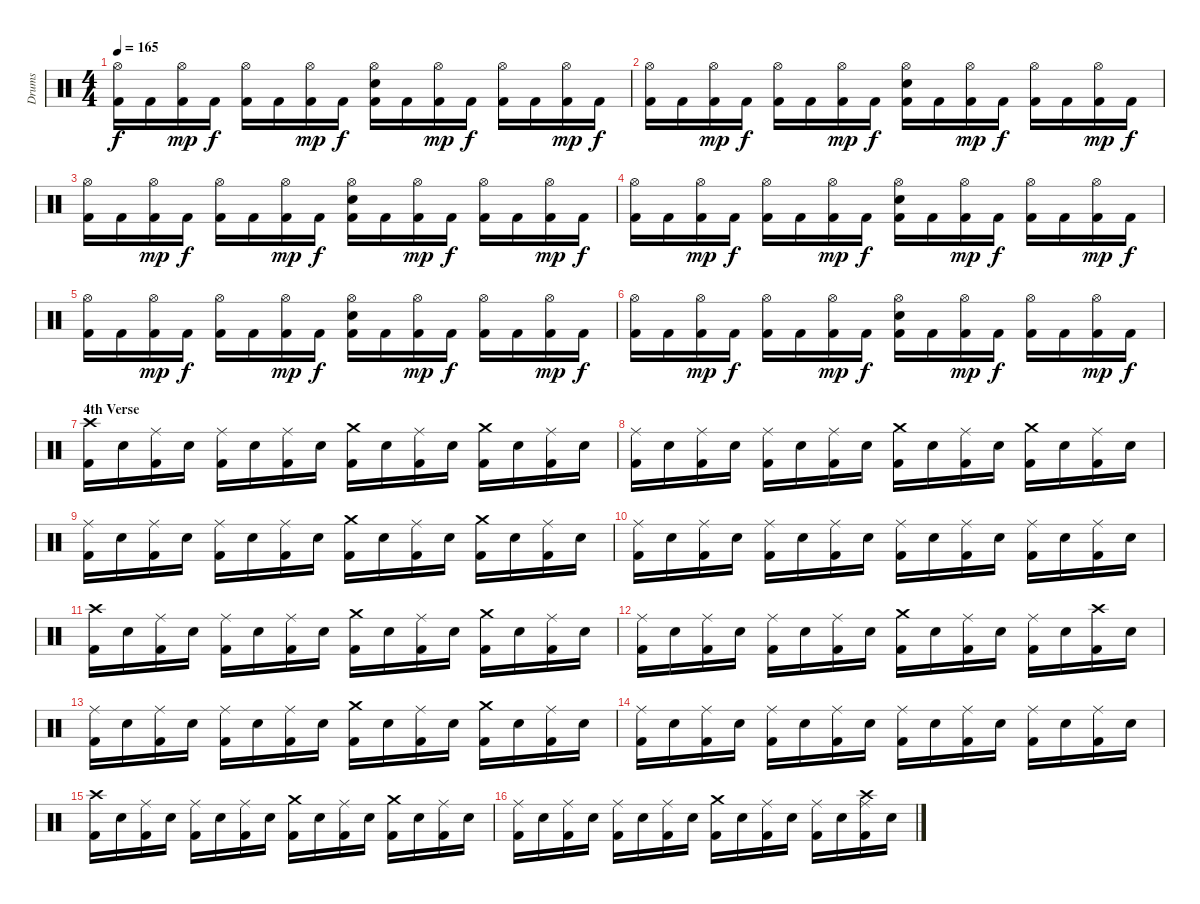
\track ("Drums" "Drums") {instrument percussion}
\staff {score}
\articulation defaults
\ts (4 4)
\tempo 165
\clef neutral
\ks c
("Kick (hit) 2" "Hi-Hat (open)").16{dy f} "Kick (hit) 2".16 ("Kick (hit) 2" "Hi-Hat (open)").16{dy mp} "Kick (hit) 2".16{dy f} ("Kick (hit) 2" "Hi-Hat (open)").16 "Kick (hit) 2".16 ("Kick (hit) 2" "Hi-Hat (open)").16{dy mp} "Kick (hit) 2".16{dy f} ("Kick (hit) 2" "Electric Snare (hit)" "Hi-Hat (open)").16 "Kick (hit) 2".16 ("Kick (hit) 2" "Hi-Hat (open)").16{dy mp} "Kick (hit) 2".16{dy f} ("Kick (hit) 2" "Hi-Hat (open)").16 "Kick (hit) 2".16 ("Kick (hit) 2" "Hi-Hat (open)").16{dy mp} "Kick (hit) 2".16{dy f} |
("Kick (hit) 2" "Hi-Hat (open)").16 "Kick (hit) 2".16 ("Kick (hit) 2" "Hi-Hat (open)").16{dy mp} "Kick (hit) 2".16{dy f} ("Kick (hit) 2" "Hi-Hat (open)").16 "Kick (hit) 2".16 ("Kick (hit) 2" "Hi-Hat (open)").16{dy mp} "Kick (hit) 2".16{dy f} ("Kick (hit) 2" "Electric Snare (hit)" "Hi-Hat (open)").16 "Kick (hit) 2".16 ("Kick (hit) 2" "Hi-Hat (open)").16{dy mp} "Kick (hit) 2".16{dy f} ("Kick (hit) 2" "Hi-Hat (open)").16 "Kick (hit) 2".16 ("Kick (hit) 2" "Hi-Hat (open)").16{dy mp} "Kick (hit) 2".16{dy f} |
("Kick (hit) 2" "Hi-Hat (open)").16 "Kick (hit) 2".16 ("Kick (hit) 2" "Hi-Hat (open)").16{dy mp} "Kick (hit) 2".16{dy f} ("Kick (hit) 2" "Hi-Hat (open)").16 "Kick (hit) 2".16 ("Kick (hit) 2" "Hi-Hat (open)").16{dy mp} "Kick (hit) 2".16{dy f} ("Kick (hit) 2" "Electric Snare (hit)" "Hi-Hat (open)").16 "Kick (hit) 2".16 ("Kick (hit) 2" "Hi-Hat (open)").16{dy mp} "Kick (hit) 2".16{dy f} ("Kick (hit) 2" "Hi-Hat (open)").16 "Kick (hit) 2".16 ("Kick (hit) 2" "Hi-Hat (open)").16{dy mp} "Kick (hit) 2".16{dy f} |
("Kick (hit) 2" "Hi-Hat (open)").16 "Kick (hit) 2".16 ("Kick (hit) 2" "Hi-Hat (open)").16{dy mp} "Kick (hit) 2".16{dy f} ("Kick (hit) 2" "Hi-Hat (open)").16 "Kick (hit) 2".16 ("Kick (hit) 2" "Hi-Hat (open)").16{dy mp} "Kick (hit) 2".16{dy f} ("Kick (hit) 2" "Electric Snare (hit)" "Hi-Hat (open)").16 "Kick (hit) 2".16 ("Kick (hit) 2" "Hi-Hat (open)").16{dy mp} "Kick (hit) 2".16{dy f} ("Kick (hit) 2" "Hi-Hat (open)").16 "Kick (hit) 2".16 ("Kick (hit) 2" "Hi-Hat (open)").16{dy mp} "Kick (hit) 2".16{dy f} |
("Kick (hit) 2" "Hi-Hat (open)").16 "Kick (hit) 2".16 ("Kick (hit) 2" "Hi-Hat (open)").16{dy mp} "Kick (hit) 2".16{dy f} ("Kick (hit) 2" "Hi-Hat (open)").16 "Kick (hit) 2".16 ("Kick (hit) 2" "Hi-Hat (open)").16{dy mp} "Kick (hit) 2".16{dy f} ("Kick (hit) 2" "Electric Snare (hit)" "Hi-Hat (open)").16 "Kick (hit) 2".16 ("Kick (hit) 2" "Hi-Hat (open)").16{dy mp} "Kick (hit) 2".16{dy f} ("Kick (hit) 2" "Hi-Hat (open)").16 "Kick (hit) 2".16 ("Kick (hit) 2" "Hi-Hat (open)").16{dy mp} "Kick (hit) 2".16{dy f} |
("Kick (hit) 2" "Hi-Hat (open)").16 "Kick (hit) 2".16 ("Kick (hit) 2" "Hi-Hat (open)").16{dy mp} "Kick (hit) 2".16{dy f} ("Kick (hit) 2" "Hi-Hat (open)").16 "Kick (hit) 2".16 ("Kick (hit) 2" "Hi-Hat (open)").16{dy mp} "Kick (hit) 2".16{dy f} ("Kick (hit) 2" "Electric Snare (hit)" "Hi-Hat (open)").16 "Kick (hit) 2".16 ("Kick (hit) 2" "Hi-Hat (open)").16{dy mp} "Kick (hit) 2".16{dy f} ("Kick (hit) 2" "Hi-Hat (open)").16 "Kick (hit) 2".16 ("Kick (hit) 2" "Hi-Hat (open)").16{dy mp} "Kick (hit) 2".16{dy f} |
\section ("" "4th Verse")
("Kick (hit) 2" "Crash high (hit)").16 "Electric Snare (hit)".16 ("Kick (hit) 2" "Ride (middle)").16 "Electric Snare (hit)".16 ("Kick (hit) 2" "Ride (middle)").16 "Electric Snare (hit)".16 ("Kick (hit) 2" "Ride (middle)").16 "Electric Snare (hit)".16 ("Kick (hit) 2" "Crash medium (hit)").16 "Electric Snare (hit)".16 ("Kick (hit) 2" "Ride (middle)").16 "Electric Snare (hit)".16 ("Kick (hit) 2" "Crash medium (hit)").16 "Electric Snare (hit)".16 ("Kick (hit) 2" "Ride (middle)").16 "Electric Snare (hit)".16 |
("Kick (hit) 2" "Ride (middle)").16 "Electric Snare (hit)".16 ("Kick (hit) 2" "Ride (middle)").16 "Electric Snare (hit)".16 ("Kick (hit) 2" "Ride (middle)").16 "Electric Snare (hit)".16 ("Kick (hit) 2" "Ride (middle)").16 "Electric Snare (hit)".16 ("Kick (hit) 2" "Crash medium (hit)").16 "Electric Snare (hit)".16 ("Kick (hit) 2" "Ride (middle)").16 "Electric Snare (hit)".16 ("Kick (hit) 2" "Crash medium (hit)").16 "Electric Snare (hit)".16 ("Kick (hit) 2" "Ride (middle)").16 "Electric Snare (hit)".16 |
("Kick (hit) 2" "Ride (middle)").16 "Electric Snare (hit)".16 ("Kick (hit) 2" "Ride (middle)").16 "Electric Snare (hit)".16 ("Kick (hit) 2" "Ride (middle)").16 "Electric Snare (hit)".16 ("Kick (hit) 2" "Ride (middle)").16 "Electric Snare (hit)".16 ("Kick (hit) 2" "Crash medium (hit)").16 "Electric Snare (hit)".16 ("Kick (hit) 2" "Ride (middle)").16 "Electric Snare (hit)".16 ("Kick (hit) 2" "Crash medium (hit)").16 "Electric Snare (hit)".16 ("Kick (hit) 2" "Ride (middle)").16 "Electric Snare (hit)".16 |
("Kick (hit) 2" "Ride (middle)").16 "Electric Snare (hit)".16 ("Kick (hit) 2" "Ride (middle)").16 "Electric Snare (hit)".16 ("Kick (hit) 2" "Ride (middle)").16 "Electric Snare (hit)".16 ("Kick (hit) 2" "Ride (middle)").16 "Electric Snare (hit)".16 ("Kick (hit) 2" "Ride (middle)").16 "Electric Snare (hit)".16 ("Kick (hit) 2" "Ride (middle)").16 "Electric Snare (hit)".16 ("Kick (hit) 2" "Ride (middle)").16 "Electric Snare (hit)".16 ("Kick (hit) 2" "Ride (middle)").16 "Electric Snare (hit)".16 |
("Kick (hit) 2" "Crash high (hit)").16 "Electric Snare (hit)".16 ("Kick (hit) 2" "Ride (middle)").16 "Electric Snare (hit)".16 ("Kick (hit) 2" "Ride (middle)").16 "Electric Snare (hit)".16 ("Kick (hit) 2" "Ride (middle)").16 "Electric Snare (hit)".16 ("Kick (hit) 2" "Crash medium (hit)").16 "Electric Snare (hit)".16 ("Kick (hit) 2" "Ride (middle)").16 "Electric Snare (hit)".16 ("Kick (hit) 2" "Crash medium (hit)").16 "Electric Snare (hit)".16 ("Kick (hit) 2" "Ride (middle)").16 "Electric Snare (hit)".16 |
("Kick (hit) 2" "Ride (middle)").16 "Electric Snare (hit)".16 ("Kick (hit) 2" "Ride (middle)").16 "Electric Snare (hit)".16 ("Kick (hit) 2" "Ride (middle)").16 "Electric Snare (hit)".16 ("Kick (hit) 2" "Ride (middle)").16 "Electric Snare (hit)".16 ("Kick (hit) 2" "Crash medium (hit)").16 "Electric Snare (hit)".16 ("Kick (hit) 2" "Ride (middle)").16 "Electric Snare (hit)".16 ("Kick (hit) 2" "Ride (middle)").16 "Electric Snare (hit)".16 ("Kick (hit) 2" "Crash high (hit)").16 "Electric Snare (hit)".16 |
("Kick (hit) 2" "Ride (middle)").16 "Electric Snare (hit)".16 ("Kick (hit) 2" "Ride (middle)").16 "Electric Snare (hit)".16 ("Kick (hit) 2" "Ride (middle)").16 "Electric Snare (hit)".16 ("Kick (hit) 2" "Ride (middle)").16 "Electric Snare (hit)".16 ("Kick (hit) 2" "Crash medium (hit)").16 "Electric Snare (hit)".16 ("Kick (hit) 2" "Ride (middle)").16 "Electric Snare (hit)".16 ("Kick (hit) 2" "Crash medium (hit)").16 "Electric Snare (hit)".16 ("Kick (hit) 2" "Ride (middle)").16 "Electric Snare (hit)".16 |
("Kick (hit) 2" "Ride (middle)").16 "Electric Snare (hit)".16 ("Kick (hit) 2" "Ride (middle)").16 "Electric Snare (hit)".16 ("Kick (hit) 2" "Ride (middle)").16 "Electric Snare (hit)".16 ("Kick (hit) 2" "Ride (middle)").16 "Electric Snare (hit)".16 ("Kick (hit) 2" "Ride (middle)").16 "Electric Snare (hit)".16 ("Kick (hit) 2" "Ride (middle)").16 "Electric Snare (hit)".16 ("Kick (hit) 2" "Ride (middle)").16 "Electric Snare (hit)".16 ("Kick (hit) 2" "Ride (middle)").16 "Electric Snare (hit)".16 |
("Kick (hit) 2" "Crash high (hit)").16 "Electric Snare (hit)".16 ("Kick (hit) 2" "Ride (middle)").16 "Electric Snare (hit)".16 ("Kick (hit) 2" "Ride (middle)").16 "Electric Snare (hit)".16 ("Kick (hit) 2" "Ride (middle)").16 "Electric Snare (hit)".16 ("Kick (hit) 2" "Crash medium (hit)").16 "Electric Snare (hit)".16 ("Kick (hit) 2" "Ride (middle)").16 "Electric Snare (hit)".16 ("Kick (hit) 2" "Crash medium (hit)").16 "Electric Snare (hit)".16 ("Kick (hit) 2" "Ride (middle)").16 "Electric Snare (hit)".16 |
("Kick (hit) 2" "Ride (middle)").16 "Electric Snare (hit)".16 ("Kick (hit) 2" "Ride (middle)").16 "Electric Snare (hit)".16 ("Kick (hit) 2" "Ride (middle)").16 "Electric Snare (hit)".16 ("Kick (hit) 2" "Ride (middle)").16 "Electric Snare (hit)".16 ("Kick (hit) 2" "Crash medium (hit)").16 "Electric Snare (hit)".16 ("Kick (hit) 2" "Ride (middle)").16 "Electric Snare (hit)".16 ("Kick (hit) 2" "Ride (middle)").16 "Electric Snare (hit)".16 ("Kick (hit) 2" "Ride (middle)" "Crash high (hit)").16 "Electric Snare (hit)".16
